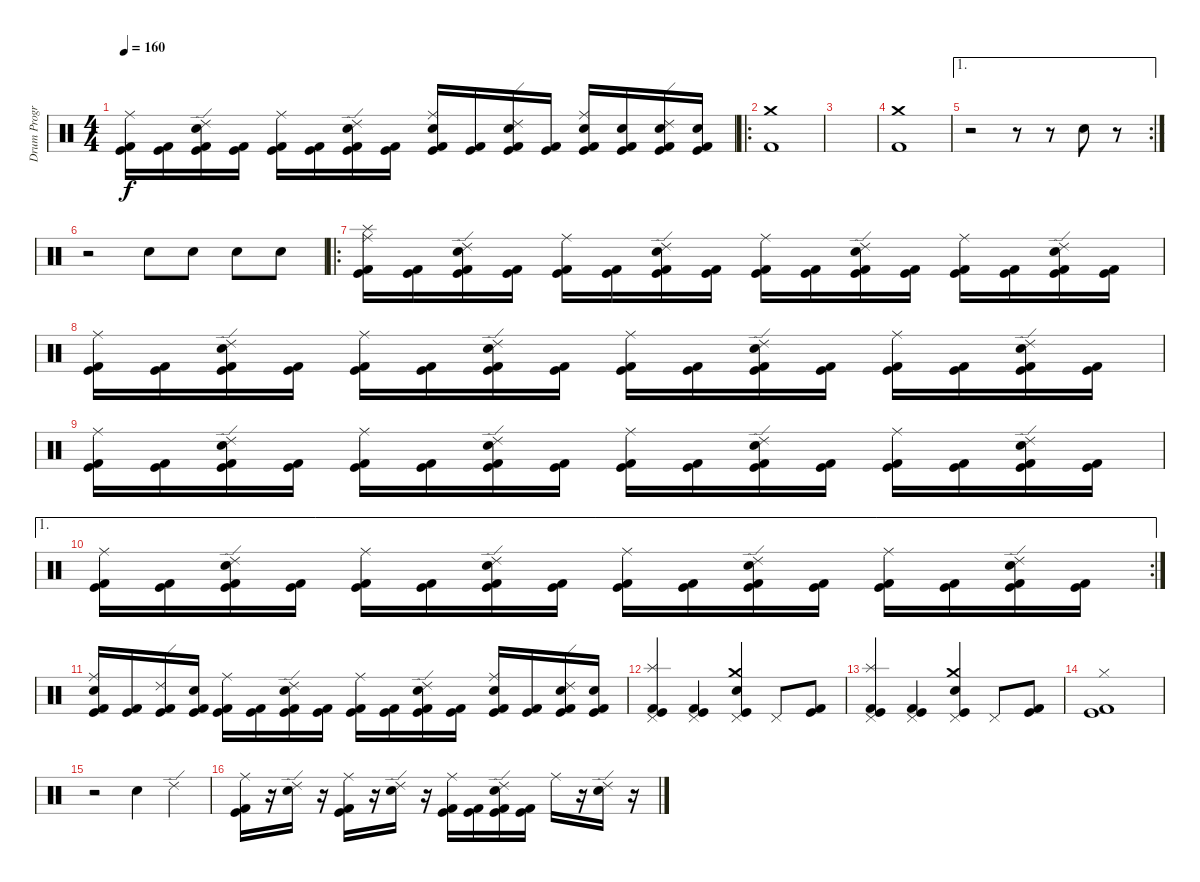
\track ("Drum Program - BG" "Drum Progr") {instrument percussion}
\staff {score}
\articulation defaults
\ts (4 4)
\tempo 160
\clef neutral
\ks c
("Kick (hit)" "Kick (hit) 2" "Ride (middle)").16{dy f} ("Kick (hit)" "Kick (hit) 2").16 ("Kick (hit)" "Kick (hit) 2" "Electric Snare (hit)" "Ride (edge) 2").16 ("Kick (hit)" "Kick (hit) 2").16 ("Kick (hit)" "Kick (hit) 2" "Ride (middle)").16 ("Kick (hit)" "Kick (hit) 2").16 ("Kick (hit)" "Kick (hit) 2" "Electric Snare (hit)" "Ride (edge) 2").16 ("Kick (hit)" "Kick (hit) 2").16 ("Kick (hit)" "Kick (hit) 2" "Electric Snare (hit)" "Ride (middle)").16 ("Kick (hit)" "Kick (hit) 2").16 ("Kick (hit)" "Kick (hit) 2" "Electric Snare (hit)" "Ride (edge) 2").16 ("Kick (hit)" "Kick (hit) 2").16 ("Kick (hit)" "Kick (hit) 2" "Electric Snare (hit)" "Ride (middle)").16 ("Kick (hit)" "Kick (hit) 2" "Electric Snare (hit)").16 ("Kick (hit)" "Kick (hit) 2" "Electric Snare (hit)" "Ride (edge) 2").16 ("Kick (hit)" "Kick (hit) 2" "Electric Snare (hit)").16 |
\ro
("Kick (hit) 2" "Crash medium (hit)").1 |
|
("Kick (hit) 2" "Crash medium (hit)").1 |
\ae 1
\rc 2
r.2 r.8 r.8 "Electric Snare (hit)".8 r.8 |
r.2 "Electric Snare (hit)".8 "Electric Snare (hit)".8 "Electric Snare (hit)".8 "Electric Snare (hit)".8 |
\ro
("Kick (hit)" "Kick (hit) 2" "Splash (hit)" "Ride (middle)").16 ("Kick (hit)" "Kick (hit) 2").16 ("Kick (hit)" "Kick (hit) 2" "Electric Snare (hit)" "Ride (edge) 2").16 ("Kick (hit)" "Kick (hit) 2").16 ("Kick (hit)" "Kick (hit) 2" "Ride (middle)").16 ("Kick (hit)" "Kick (hit) 2").16 ("Kick (hit)" "Kick (hit) 2" "Electric Snare (hit)" "Ride (edge) 2").16 ("Kick (hit)" "Kick (hit) 2").16 ("Kick (hit)" "Kick (hit) 2" "Ride (middle)").16 ("Kick (hit)" "Kick (hit) 2").16 ("Kick (hit)" "Kick (hit) 2" "Electric Snare (hit)" "Ride (edge) 2").16 ("Kick (hit)" "Kick (hit) 2").16 ("Kick (hit)" "Kick (hit) 2" "Ride (middle)").16 ("Kick (hit)" "Kick (hit) 2").16 ("Kick (hit)" "Kick (hit) 2" "Electric Snare (hit)" "Ride (edge) 2").16 ("Kick (hit)" "Kick (hit) 2").16 |
("Kick (hit)" "Kick (hit) 2" "Ride (middle)").16 ("Kick (hit)" "Kick (hit) 2").16 ("Kick (hit)" "Kick (hit) 2" "Electric Snare (hit)" "Ride (edge) 2").16 ("Kick (hit)" "Kick (hit) 2").16 ("Kick (hit)" "Kick (hit) 2" "Ride (middle)").16 ("Kick (hit)" "Kick (hit) 2").16 ("Kick (hit)" "Kick (hit) 2" "Electric Snare (hit)" "Ride (edge) 2").16 ("Kick (hit)" "Kick (hit) 2").16 ("Kick (hit)" "Kick (hit) 2" "Ride (middle)").16 ("Kick (hit)" "Kick (hit) 2").16 ("Kick (hit)" "Kick (hit) 2" "Electric Snare (hit)" "Ride (edge) 2").16 ("Kick (hit)" "Kick (hit) 2").16 ("Kick (hit)" "Kick (hit) 2" "Ride (middle)").16 ("Kick (hit)" "Kick (hit) 2").16 ("Kick (hit)" "Kick (hit) 2" "Electric Snare (hit)" "Ride (edge) 2").16 ("Kick (hit)" "Kick (hit) 2").16 |
("Kick (hit)" "Kick (hit) 2" "Ride (middle)").16 ("Kick (hit)" "Kick (hit) 2").16 ("Kick (hit)" "Kick (hit) 2" "Electric Snare (hit)" "Ride (edge) 2").16 ("Kick (hit)" "Kick (hit) 2").16 ("Kick (hit)" "Kick (hit) 2" "Ride (middle)").16 ("Kick (hit)" "Kick (hit) 2").16 ("Kick (hit)" "Kick (hit) 2" "Electric Snare (hit)" "Ride (edge) 2").16 ("Kick (hit)" "Kick (hit) 2").16 ("Kick (hit)" "Kick (hit) 2" "Ride (middle)").16 ("Kick (hit)" "Kick (hit) 2").16 ("Kick (hit)" "Kick (hit) 2" "Electric Snare (hit)" "Ride (edge) 2").16 ("Kick (hit)" "Kick (hit) 2").16 ("Kick (hit)" "Kick (hit) 2" "Ride (middle)").16 ("Kick (hit)" "Kick (hit) 2").16 ("Kick (hit)" "Kick (hit) 2" "Electric Snare (hit)" "Ride (edge) 2").16 ("Kick (hit)" "Kick (hit) 2").16 |
\ae 1
\rc 2
("Kick (hit)" "Kick (hit) 2" "Ride (middle)").16 ("Kick (hit)" "Kick (hit) 2").16 ("Kick (hit)" "Kick (hit) 2" "Electric Snare (hit)" "Ride (edge) 2").16 ("Kick (hit)" "Kick (hit) 2").16 ("Kick (hit)" "Kick (hit) 2" "Ride (middle)").16 ("Kick (hit)" "Kick (hit) 2").16 ("Kick (hit)" "Kick (hit) 2" "Electric Snare (hit)" "Ride (edge) 2").16 ("Kick (hit)" "Kick (hit) 2").16 ("Kick (hit)" "Kick (hit) 2" "Ride (middle)").16 ("Kick (hit)" "Kick (hit) 2").16 ("Kick (hit)" "Kick (hit) 2" "Electric Snare (hit)" "Ride (edge) 2").16 ("Kick (hit)" "Kick (hit) 2").16 ("Kick (hit)" "Kick (hit) 2" "Ride (middle)").16 ("Kick (hit)" "Kick (hit) 2").16 ("Kick (hit)" "Kick (hit) 2" "Electric Snare (hit)" "Ride (edge) 2").16 ("Kick (hit)" "Kick (hit) 2").16 |
("Kick (hit)" "Kick (hit) 2" "Electric Snare (hit)" "Ride (middle)").16 ("Kick (hit)" "Kick (hit) 2").16 ("Kick (hit)" "Kick (hit) 2" "Ride (edge) 2").16 ("Kick (hit)" "Kick (hit) 2" "Electric Snare (hit)").16 ("Kick (hit)" "Kick (hit) 2" "Ride (middle)").16 ("Kick (hit)" "Kick (hit) 2").16 ("Kick (hit)" "Kick (hit) 2" "Electric Snare (hit)" "Ride (edge) 2").16 ("Kick (hit)" "Kick (hit) 2").16 ("Kick (hit)" "Kick (hit) 2" "Ride (middle)").16 ("Kick (hit)" "Kick (hit) 2").16 ("Kick (hit)" "Kick (hit) 2" "Electric Snare (hit)" "Ride (edge) 2").16 ("Kick (hit)" "Kick (hit) 2").16 ("Kick (hit)" "Kick (hit) 2" "Electric Snare (hit)" "Ride (middle)").16 ("Kick (hit)" "Kick (hit) 2").16 ("Kick (hit)" "Kick (hit) 2" "Electric Snare (hit)" "Ride (edge) 2").16 ("Kick (hit)" "Kick (hit) 2" "Electric Snare (hit)").16 |
("Kick (hit) 2" "Kick (hit)" "Splash (hit)" "Pedal Hi-Hat (hit)").4 ("Kick (hit) 2" "Kick (hit)" "Pedal Hi-Hat (hit)").4 ("Crash medium (hit)" "Kick (hit)" "Electric Snare (hit)" "Pedal Hi-Hat (hit)").4 "Pedal Hi-Hat (hit)".8 ("Kick (hit)" "Kick (hit) 2").8 |
("Kick (hit) 2" "Kick (hit)" "Splash (hit)" "Pedal Hi-Hat (hit)").4 ("Kick (hit) 2" "Kick (hit)" "Pedal Hi-Hat (hit)").4 ("Crash medium (hit)" "Kick (hit)" "Electric Snare (hit)" "Pedal Hi-Hat (hit)").4 "Pedal Hi-Hat (hit)".8 ("Kick (hit)" "Kick (hit) 2").8 |
("Kick (hit) 2" "Kick (hit)" "Hi-Hat (closed)").1 |
r.2 "Electric Snare (hit)".4 "Ride (edge) 2".4 |
("Kick (hit) 2" "Kick (hit)" "Ride (middle)").16 r.16 ("Electric Snare (hit)" "Ride (edge) 2").16 r.16 ("Kick (hit)" "Kick (hit) 2" "Ride (middle)").16 r.16 ("Electric Snare (hit)" "Ride (edge) 2").16 r.16 ("Kick (hit)" "Kick (hit) 2" "Ride (middle)").16 ("Kick (hit)" "Kick (hit) 2").16 ("Kick (hit)" "Kick (hit) 2" "Electric Snare (hit)" "Ride (edge) 2").16 ("Kick (hit)" "Kick (hit) 2").16 "Ride (middle)".16 r.16 ("Electric Snare (hit)" "Ride (edge) 2").16 r.16
